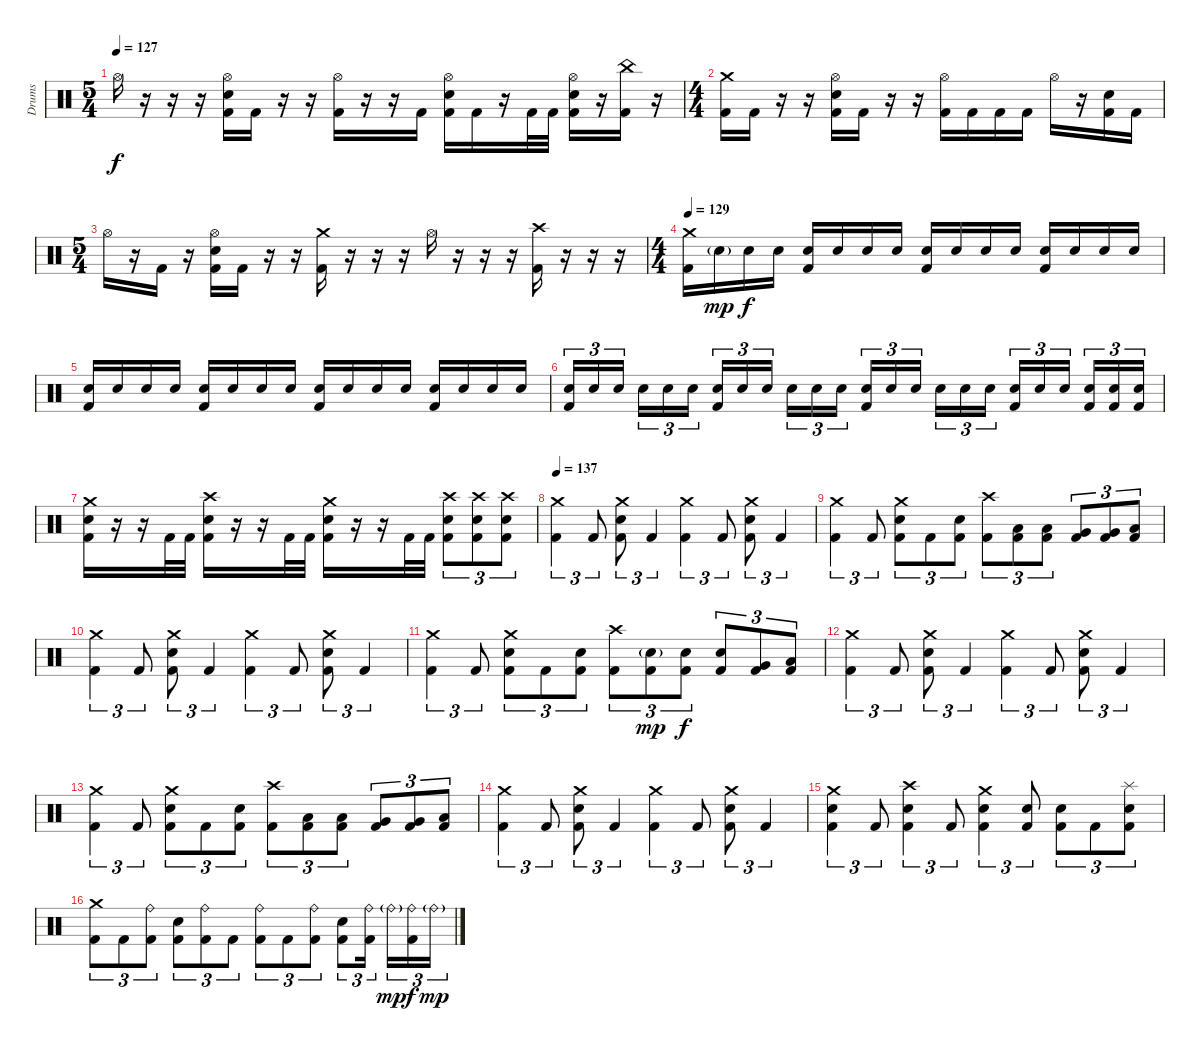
\track ("Drums" "Drums") {instrument percussion}
\staff {score}
\articulation defaults
\ts (5 4)
\tempo 127
\clef neutral
\ks c "Hi-Hat (open)".16{dy f}
r.16 r.16 r.16 ("Hi-Hat (open)" "Electric Snare (hit)" "Kick (hit) 2").16 "Kick (hit) 2".16 r.16 r.16 ("Hi-Hat (open)" "Kick (hit) 2").16 r.16 r.16 "Kick (hit) 2".16 ("Hi-Hat (open)" "Electric Snare (hit)" "Kick (hit) 2").16 "Kick (hit) 2".16 r.16 "Kick (hit) 2".32 "Kick (hit) 2".32 ("Hi-Hat (open)" "Electric Snare (hit)" "Kick (hit) 2").16 r.16 ("China (hit)" "Kick (hit) 2").16 r.16 |
\ts (4 4)
("Crash medium (hit)" "Kick (hit) 2").16 "Kick (hit) 2".16 r.16 r.16 ("Hi-Hat (open)" "Electric Snare (hit)" "Kick (hit) 2").16 "Kick (hit) 2".16 r.16 r.16 ("Hi-Hat (open)" "Kick (hit) 2").16 "Kick (hit) 2".16 "Kick (hit) 2".16 "Kick (hit) 2".16 "Hi-Hat (open)".16 r.16 ("Electric Snare (hit)" "Kick (hit) 2").16 "Kick (hit) 2".16 |
\ts (5 4)
"Hi-Hat (open)".16 r.16 "Kick (hit) 2".16 r.16 ("Hi-Hat (open)" "Electric Snare (hit)" "Kick (hit) 2").16 "Kick (hit) 2".16 r.16 r.16 ("Crash medium (hit)" "Kick (hit) 2").16 r.16 r.16 r.16 "Hi-Hat (open)".16 r.16 r.16 r.16 ("Crash high (hit)" "Kick (hit) 2").16 r.16 r.16 r.16 |
\ts (4 4)
\section ("" "")
\tempo 129
("Crash medium (hit)" "Kick (hit) 2").16 "Electric Snare (hit)"{g}.16{dy mp} "Electric Snare (hit)".16{dy f} "Electric Snare (hit)".16 ("Electric Snare (hit)" "Kick (hit) 2").16 "Electric Snare (hit)".16 "Electric Snare (hit)".16 "Electric Snare (hit)".16 ("Electric Snare (hit)" "Kick (hit) 2").16 "Electric Snare (hit)".16 "Electric Snare (hit)".16 "Electric Snare (hit)".16 ("Electric Snare (hit)" "Kick (hit) 2").16 "Electric Snare (hit)".16 "Electric Snare (hit)".16 "Electric Snare (hit)".16 |
("Electric Snare (hit)" "Kick (hit) 2").16 "Electric Snare (hit)".16 "Electric Snare (hit)".16 "Electric Snare (hit)".16 ("Electric Snare (hit)" "Kick (hit) 2").16 "Electric Snare (hit)".16 "Electric Snare (hit)".16 "Electric Snare (hit)".16 ("Electric Snare (hit)" "Kick (hit) 2").16 "Electric Snare (hit)".16 "Electric Snare (hit)".16 "Electric Snare (hit)".16 ("Electric Snare (hit)" "Kick (hit) 2").16 "Electric Snare (hit)".16 "Electric Snare (hit)".16 "Electric Snare (hit)".16 |
("Electric Snare (hit)" "Kick (hit) 2").16{tu (3 2)} "Electric Snare (hit)".16{tu (3 2)} "Electric Snare (hit)".16{tu (3 2)} "Electric Snare (hit)".16{tu (3 2)} "Electric Snare (hit)".16{tu (3 2)} "Electric Snare (hit)".16{tu (3 2)} ("Electric Snare (hit)" "Kick (hit) 2").16{tu (3 2)} "Electric Snare (hit)".16{tu (3 2)} "Electric Snare (hit)".16{tu (3 2)} "Electric Snare (hit)".16{tu (3 2)} "Electric Snare (hit)".16{tu (3 2)} "Electric Snare (hit)".16{tu (3 2)} ("Electric Snare (hit)" "Kick (hit) 2").16{tu (3 2)} "Electric Snare (hit)".16{tu (3 2)} "Electric Snare (hit)".16{tu (3 2)} "Electric Snare (hit)".16{tu (3 2)} "Electric Snare (hit)".16{tu (3 2)} "Electric Snare (hit)".16{tu (3 2)} ("Electric Snare (hit)" "Kick (hit) 2").16{tu (3 2)} "Electric Snare (hit)".16{tu (3 2)} "Electric Snare (hit)".16{tu (3 2)} ("Electric Snare (hit)" "Kick (hit) 2").16{tu (3 2)} ("Electric Snare (hit)" "Kick (hit) 2").16{tu (3 2)} ("Electric Snare (hit)" "Kick (hit) 2").16{tu (3 2)} |
("Crash medium (hit)" "Electric Snare (hit)" "Kick (hit) 2").16 r.16 r.16 "Kick (hit) 2".32 "Kick (hit) 2".32 ("Crash high (hit)" "Electric Snare (hit)" "Kick (hit) 2").16 r.16 r.16 "Kick (hit) 2".32 "Kick (hit) 2".32 ("Crash medium (hit)" "Electric Snare (hit)" "Kick (hit) 2").16 r.16 r.16 "Kick (hit) 2".32 "Kick (hit) 2".32 ("Crash high (hit)" "Electric Snare (hit)" "Kick (hit) 2").8{tu (3 2)} ("Crash high (hit)" "Electric Snare (hit)" "Kick (hit) 2").8{tu (3 2)} ("Crash high (hit)" "Electric Snare (hit)" "Kick (hit) 2").8{tu (3 2)} |
\section ("" "")
\tempo 137
("Crash medium (hit)" "Kick (hit) 2").4{tu (3 2)} "Kick (hit) 2".8{tu (3 2)} ("Crash medium (hit)" "Electric Snare (hit)" "Kick (hit) 2").8{tu (3 2)} "Kick (hit) 2".4{tu (3 2)} ("Crash medium (hit)" "Kick (hit) 2").4{tu (3 2)} "Kick (hit) 2".8{tu (3 2)} ("Crash medium (hit)" "Electric Snare (hit)" "Kick (hit) 2").8{tu (3 2)} "Kick (hit) 2".4{tu (3 2)} |
("Crash medium (hit)" "Kick (hit) 2").4{tu (3 2)} "Kick (hit) 2".8{tu (3 2)} ("Crash medium (hit)" "Electric Snare (hit)" "Kick (hit) 2").8{tu (3 2)} "Kick (hit) 2".8{tu (3 2)} ("Electric Snare (hit)" "Kick (hit) 2").8{tu (3 2)} ("Crash high (hit)" "Kick (hit) 2").8{tu (3 2)} ("Low Tom (hit)" "Kick (hit) 2").8{tu (3 2)} ("Low Tom (hit)" "Kick (hit) 2").8{tu (3 2)} ("Very Low Tom (hit)" "Kick (hit) 2").8{tu (3 2)} ("Very Low Tom (hit)" "Kick (hit) 2").8{tu (3 2)} ("Low Floor Tom (hit)" "Kick (hit) 2").8{tu (3 2)} |
("Crash medium (hit)" "Kick (hit) 2").4{tu (3 2)} "Kick (hit) 2".8{tu (3 2)} ("Crash medium (hit)" "Electric Snare (hit)" "Kick (hit) 2").8{tu (3 2)} "Kick (hit) 2".4{tu (3 2)} ("Crash medium (hit)" "Kick (hit) 2").4{tu (3 2)} "Kick (hit) 2".8{tu (3 2)} ("Crash medium (hit)" "Electric Snare (hit)" "Kick (hit) 2").8{tu (3 2)} "Kick (hit) 2".4{tu (3 2)} |
("Crash medium (hit)" "Kick (hit) 2").4{tu (3 2)} "Kick (hit) 2".8{tu (3 2)} ("Crash medium (hit)" "Electric Snare (hit)" "Kick (hit) 2").8{tu (3 2)} "Kick (hit) 2".8{tu (3 2)} ("Electric Snare (hit)" "Kick (hit) 2").8{tu (3 2)} ("Crash high (hit)" "Kick (hit) 2").8{tu (3 2)} ("Electric Snare (hit)"{g} "Kick (hit) 2").8{tu (3 2) dy mp} ("Electric Snare (hit)" "Kick (hit) 2").8{tu (3 2) dy f} ("Electric Snare (hit)" "Kick (hit) 2").8{tu (3 2)} ("Very Low Tom (hit)" "Kick (hit) 2").8{tu (3 2)} ("Low Floor Tom (hit)" "Kick (hit) 2").8{tu (3 2)} |
("Crash medium (hit)" "Kick (hit) 2").4{tu (3 2)} "Kick (hit) 2".8{tu (3 2)} ("Crash medium (hit)" "Electric Snare (hit)" "Kick (hit) 2").8{tu (3 2)} "Kick (hit) 2".4{tu (3 2)} ("Crash medium (hit)" "Kick (hit) 2").4{tu (3 2)} "Kick (hit) 2".8{tu (3 2)} ("Crash medium (hit)" "Electric Snare (hit)" "Kick (hit) 2").8{tu (3 2)} "Kick (hit) 2".4{tu (3 2)} |
("Crash medium (hit)" "Kick (hit) 2").4{tu (3 2)} "Kick (hit) 2".8{tu (3 2)} ("Crash medium (hit)" "Electric Snare (hit)" "Kick (hit) 2").8{tu (3 2)} "Kick (hit) 2".8{tu (3 2)} ("Electric Snare (hit)" "Kick (hit) 2").8{tu (3 2)} ("Crash high (hit)" "Kick (hit) 2").8{tu (3 2)} ("Low Tom (hit)" "Kick (hit) 2").8{tu (3 2)} ("Low Tom (hit)" "Kick (hit) 2").8{tu (3 2)} ("Very Low Tom (hit)" "Kick (hit) 2").8{tu (3 2)} ("Very Low Tom (hit)" "Kick (hit) 2").8{tu (3 2)} ("Low Floor Tom (hit)" "Kick (hit) 2").8{tu (3 2)} |
("Crash medium (hit)" "Kick (hit) 2").4{tu (3 2)} "Kick (hit) 2".8{tu (3 2)} ("Crash medium (hit)" "Electric Snare (hit)" "Kick (hit) 2").8{tu (3 2)} "Kick (hit) 2".4{tu (3 2)} ("Crash medium (hit)" "Kick (hit) 2").4{tu (3 2)} "Kick (hit) 2".8{tu (3 2)} ("Crash medium (hit)" "Electric Snare (hit)" "Kick (hit) 2").8{tu (3 2)} "Kick (hit) 2".4{tu (3 2)} |
("Crash medium (hit)" "Electric Snare (hit)" "Kick (hit) 2").4{tu (3 2)} "Kick (hit) 2".8{tu (3 2)} ("Crash high (hit)" "Electric Snare (hit)" "Kick (hit) 2").4{tu (3 2)} "Kick (hit) 2".8{tu (3 2)} ("Crash medium (hit)" "Electric Snare (hit)" "Kick (hit) 2").4{tu (3 2)} ("Electric Snare (hit)" "Kick (hit) 2").8{tu (3 2)} ("Electric Snare (hit)" "Kick (hit) 2").8{tu (3 2)} "Kick (hit) 2".8{tu (3 2)} ("Splash (hit)" "Electric Snare (hit)" "Kick (hit) 2").8{tu (3 2)} |
\section ("" "")
("Crash medium (hit)" "Kick (hit) 2").8{tu (3 2)} "Kick (hit) 2".8{tu (3 2)} ("Ride (bell)" "Kick (hit) 2").8{tu (3 2)} ("Electric Snare (hit)" "Kick (hit) 2").8{tu (3 2)} ("Ride (bell)" "Kick (hit) 2").8{tu (3 2)} "Kick (hit) 2".8{tu (3 2)} ("Ride (bell)" "Kick (hit) 2").8{tu (3 2)} "Kick (hit) 2".8{tu (3 2)} ("Ride (bell)" "Kick (hit) 2").8{tu (3 2)} ("Electric Snare (hit)" "Kick (hit) 2").8{tu (3 2)} ("Ride (bell)" "Kick (hit) 2").16{tu (3 2)} "Ride (bell)"{g}.16{tu (3 2) dy mp} ("Ride (bell)" "Kick (hit) 2").16{tu (3 2) dy f} "Ride (bell)"{g}.16{tu (3 2) dy mp}
